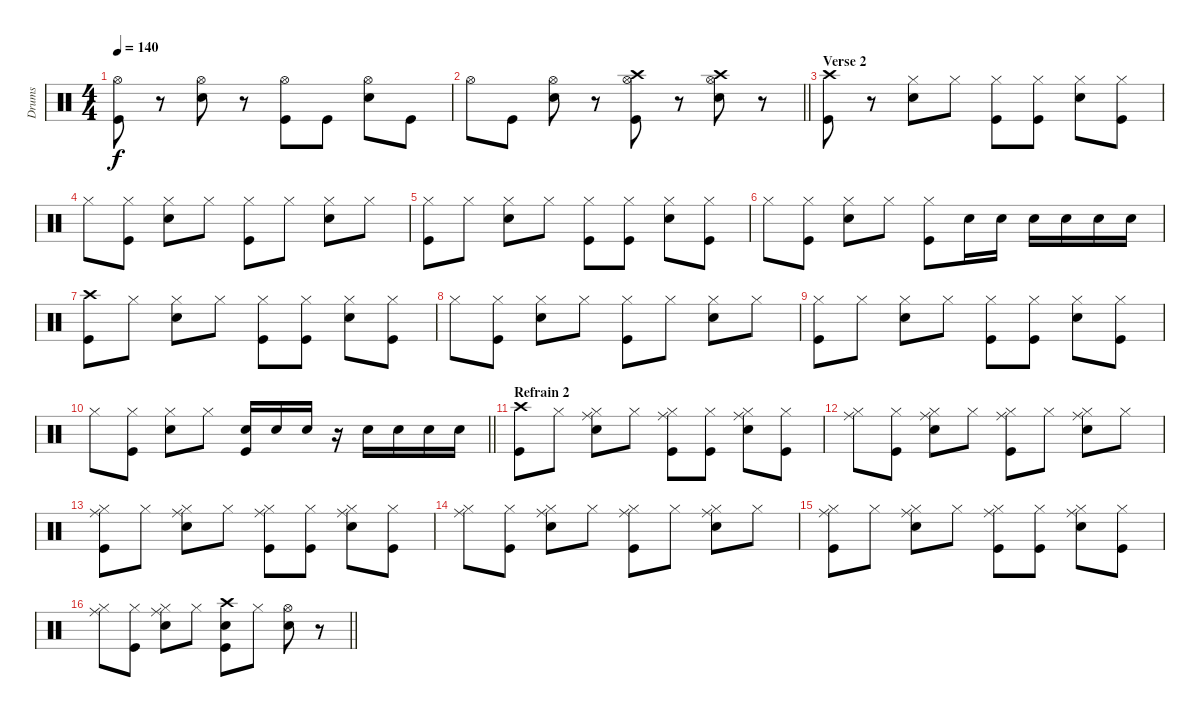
\track ("Drums" "Drums") {instrument percussion}
\staff {score}
\articulation defaults
\ts (4 4)
\tempo 140
\clef neutral
\ks c
("Kick (hit)" "Hi-Hat (open)").8{dy f} r.8 ("Electric Snare (hit)" "Hi-Hat (open)").8 r.8 ("Kick (hit)" "Hi-Hat (open)").8 "Kick (hit)".8 ("Electric Snare (hit)" "Hi-Hat (open)").8 "Kick (hit)".8 |
\barLineRight lightlight "Hi-Hat (open)".8 "Kick (hit)".8
("Electric Snare (hit)" "Hi-Hat (open)").8 r.8 ("Kick (hit)" "Hi-Hat (open)" "Crash high (hit)").8 r.8 ("Electric Snare (hit)" "Hi-Hat (open)" "Crash high (hit)").8 r.8 |
\section ("" "Verse 2")
("Kick (hit)" "Crash high (hit)").8 r.8 ("Electric Snare (hit)" "Hi-Hat (closed)").8 "Hi-Hat (closed)".8 ("Kick (hit)" "Hi-Hat (closed)").8 ("Kick (hit)" "Hi-Hat (closed)").8 ("Electric Snare (hit)" "Hi-Hat (closed)").8 ("Kick (hit)" "Hi-Hat (closed)").8 |
"Hi-Hat (closed)".8 ("Kick (hit)" "Hi-Hat (closed)").8 ("Electric Snare (hit)" "Hi-Hat (closed)").8 "Hi-Hat (closed)".8 ("Kick (hit)" "Hi-Hat (closed)").8 "Hi-Hat (closed)".8 ("Electric Snare (hit)" "Hi-Hat (closed)").8 "Hi-Hat (closed)".8 |
("Kick (hit)" "Hi-Hat (closed)").8 "Hi-Hat (closed)".8 ("Electric Snare (hit)" "Hi-Hat (closed)").8 "Hi-Hat (closed)".8 ("Kick (hit)" "Hi-Hat (closed)").8 ("Kick (hit)" "Hi-Hat (closed)").8 ("Electric Snare (hit)" "Hi-Hat (closed)").8 ("Kick (hit)" "Hi-Hat (closed)").8 |
"Hi-Hat (closed)".8 ("Kick (hit)" "Hi-Hat (closed)").8 ("Electric Snare (hit)" "Hi-Hat (closed)").8 "Hi-Hat (closed)".8 ("Kick (hit)" "Hi-Hat (closed)").8 "Electric Snare (hit)".16 "Electric Snare (hit)".16 "Electric Snare (hit)".16 "Electric Snare (hit)".16 "Electric Snare (hit)".16 "Electric Snare (hit)".16 |
("Kick (hit)" "Crash high (hit)").8 "Hi-Hat (closed)".8 ("Electric Snare (hit)" "Hi-Hat (closed)").8 "Hi-Hat (closed)".8 ("Kick (hit)" "Hi-Hat (closed)").8 ("Kick (hit)" "Hi-Hat (closed)").8 ("Electric Snare (hit)" "Hi-Hat (closed)").8 ("Kick (hit)" "Hi-Hat (closed)").8 |
"Hi-Hat (closed)".8 ("Kick (hit)" "Hi-Hat (closed)").8 ("Electric Snare (hit)" "Hi-Hat (closed)").8 "Hi-Hat (closed)".8 ("Kick (hit)" "Hi-Hat (closed)").8 "Hi-Hat (closed)".8 ("Electric Snare (hit)" "Hi-Hat (closed)").8 "Hi-Hat (closed)".8 |
("Kick (hit)" "Hi-Hat (closed)").8 "Hi-Hat (closed)".8 ("Electric Snare (hit)" "Hi-Hat (closed)").8 "Hi-Hat (closed)".8 ("Kick (hit)" "Hi-Hat (closed)").8 ("Kick (hit)" "Hi-Hat (closed)").8 ("Electric Snare (hit)" "Hi-Hat (closed)").8 ("Kick (hit)" "Hi-Hat (closed)").8 |
\barLineRight lightlight "Hi-Hat (closed)".8
("Kick (hit)" "Hi-Hat (closed)").8 ("Electric Snare (hit)" "Hi-Hat (closed)").8 "Hi-Hat (closed)".8 ("Kick (hit)" "Electric Snare (hit)").16 "Electric Snare (hit)".16 "Electric Snare (hit)".16 r.16 "Electric Snare (hit)".16 "Electric Snare (hit)".16 "Electric Snare (hit)".16 "Electric Snare (hit)".16 |
\section ("" "Refrain 2")
("Kick (hit)" "Crash high (hit)").8 "Hi-Hat (closed)".8 ("Electric Snare (hit)" "Hi-Hat (closed)" "Ride (middle)").8 "Hi-Hat (closed)".8 ("Kick (hit)" "Hi-Hat (closed)" "Ride (middle)").8 ("Kick (hit)" "Hi-Hat (closed)").8 ("Electric Snare (hit)" "Hi-Hat (closed)" "Ride (middle)").8 ("Kick (hit)" "Hi-Hat (closed)").8 |
("Hi-Hat (closed)" "Ride (middle)").8 ("Kick (hit)" "Hi-Hat (closed)").8 ("Electric Snare (hit)" "Hi-Hat (closed)" "Ride (middle)").8 "Hi-Hat (closed)".8 ("Kick (hit)" "Hi-Hat (closed)" "Ride (middle)").8 "Hi-Hat (closed)".8 ("Electric Snare (hit)" "Hi-Hat (closed)" "Ride (middle)").8 "Hi-Hat (closed)".8 |
("Kick (hit)" "Hi-Hat (closed)" "Ride (middle)").8 "Hi-Hat (closed)".8 ("Electric Snare (hit)" "Hi-Hat (closed)" "Ride (middle)").8 "Hi-Hat (closed)".8 ("Kick (hit)" "Hi-Hat (closed)" "Ride (middle)").8 ("Kick (hit)" "Hi-Hat (closed)").8 ("Electric Snare (hit)" "Hi-Hat (closed)" "Ride (middle)").8 ("Kick (hit)" "Hi-Hat (closed)").8 |
("Hi-Hat (closed)" "Ride (middle)").8 ("Kick (hit)" "Hi-Hat (closed)").8 ("Electric Snare (hit)" "Hi-Hat (closed)" "Ride (middle)").8 "Hi-Hat (closed)".8 ("Kick (hit)" "Hi-Hat (closed)" "Ride (middle)").8 "Hi-Hat (closed)".8 ("Electric Snare (hit)" "Hi-Hat (closed)" "Ride (middle)").8 "Hi-Hat (closed)".8 |
("Kick (hit)" "Hi-Hat (closed)" "Ride (middle)").8 "Hi-Hat (closed)".8 ("Electric Snare (hit)" "Hi-Hat (closed)" "Ride (middle)").8 "Hi-Hat (closed)".8 ("Kick (hit)" "Hi-Hat (closed)" "Ride (middle)").8 ("Kick (hit)" "Hi-Hat (closed)").8 ("Electric Snare (hit)" "Hi-Hat (closed)" "Ride (middle)").8 ("Kick (hit)" "Hi-Hat (closed)").8 |
\barLineRight lightlight
("Hi-Hat (closed)" "Ride (middle)").8 ("Kick (hit)" "Hi-Hat (closed)").8 ("Electric Snare (hit)" "Hi-Hat (closed)" "Ride (middle)").8 "Hi-Hat (closed)".8 ("Kick (hit)" "Electric Snare (hit)" "Crash high (hit)").8 "Hi-Hat (closed)".8 ("Electric Snare (hit)" "Hi-Hat (open)").8 r.8
